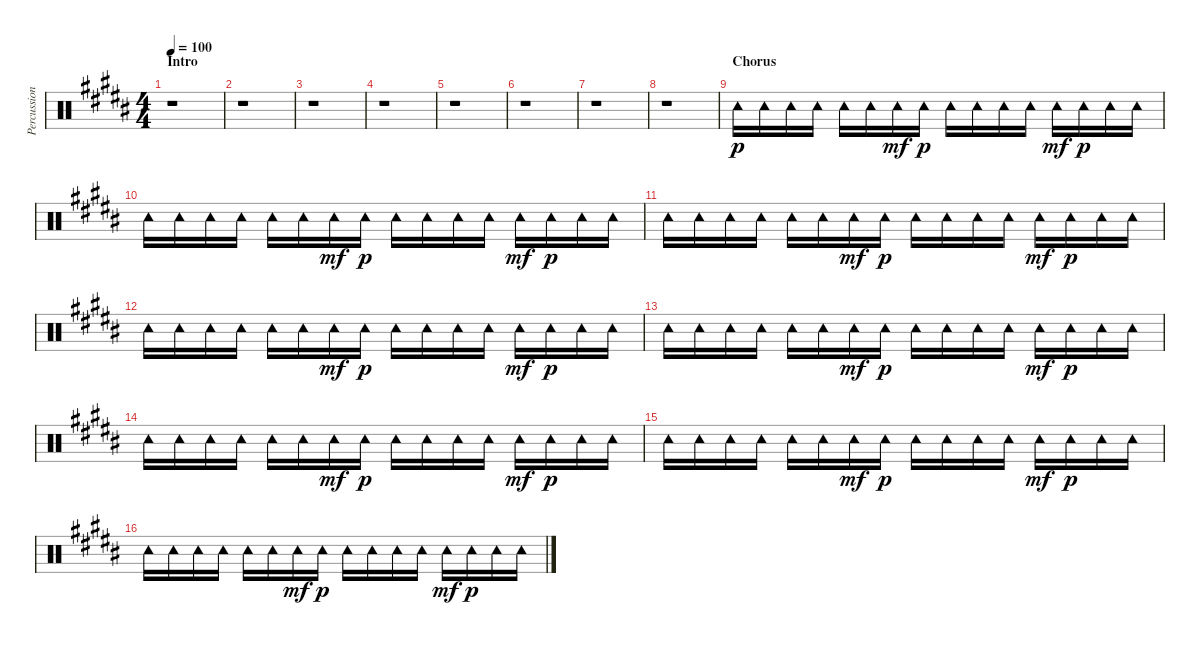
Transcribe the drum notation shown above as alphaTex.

\track ("Percussion" "Percussion") {instrument percussion}
\staff {score}
\articulation defaults
\ts (4 4)
\section ("" "Intro")
\tempo 100
\clef neutral
\ks b
r.1{dy p} |
r.1 |
r.1 |
r.1 |
r.1 |
r.1 |
r.1 |
r.1 |
\section ("" "Chorus")
"Tambourine (hit)".16 "Tambourine (hit)".16 "Tambourine (hit)".16 "Tambourine (hit)".16 "Tambourine (hit)".16 "Tambourine (hit)".16 "Tambourine (hit)".16{dy mf} "Tambourine (hit)".16{dy p} "Tambourine (hit)".16 "Tambourine (hit)".16 "Tambourine (hit)".16 "Tambourine (hit)".16 "Tambourine (hit)".16{dy mf} "Tambourine (hit)".16{dy p} "Tambourine (hit)".16 "Tambourine (hit)".16 |
"Tambourine (hit)".16 "Tambourine (hit)".16 "Tambourine (hit)".16 "Tambourine (hit)".16 "Tambourine (hit)".16 "Tambourine (hit)".16 "Tambourine (hit)".16{dy mf} "Tambourine (hit)".16{dy p} "Tambourine (hit)".16 "Tambourine (hit)".16 "Tambourine (hit)".16 "Tambourine (hit)".16 "Tambourine (hit)".16{dy mf} "Tambourine (hit)".16{dy p} "Tambourine (hit)".16 "Tambourine (hit)".16 |
"Tambourine (hit)".16 "Tambourine (hit)".16 "Tambourine (hit)".16 "Tambourine (hit)".16 "Tambourine (hit)".16 "Tambourine (hit)".16 "Tambourine (hit)".16{dy mf} "Tambourine (hit)".16{dy p} "Tambourine (hit)".16 "Tambourine (hit)".16 "Tambourine (hit)".16 "Tambourine (hit)".16 "Tambourine (hit)".16{dy mf} "Tambourine (hit)".16{dy p} "Tambourine (hit)".16 "Tambourine (hit)".16 |
"Tambourine (hit)".16 "Tambourine (hit)".16 "Tambourine (hit)".16 "Tambourine (hit)".16 "Tambourine (hit)".16 "Tambourine (hit)".16 "Tambourine (hit)".16{dy mf} "Tambourine (hit)".16{dy p} "Tambourine (hit)".16 "Tambourine (hit)".16 "Tambourine (hit)".16 "Tambourine (hit)".16 "Tambourine (hit)".16{dy mf} "Tambourine (hit)".16{dy p} "Tambourine (hit)".16 "Tambourine (hit)".16 |
"Tambourine (hit)".16 "Tambourine (hit)".16 "Tambourine (hit)".16 "Tambourine (hit)".16 "Tambourine (hit)".16 "Tambourine (hit)".16 "Tambourine (hit)".16{dy mf} "Tambourine (hit)".16{dy p} "Tambourine (hit)".16 "Tambourine (hit)".16 "Tambourine (hit)".16 "Tambourine (hit)".16 "Tambourine (hit)".16{dy mf} "Tambourine (hit)".16{dy p} "Tambourine (hit)".16 "Tambourine (hit)".16 |
"Tambourine (hit)".16 "Tambourine (hit)".16 "Tambourine (hit)".16 "Tambourine (hit)".16 "Tambourine (hit)".16 "Tambourine (hit)".16 "Tambourine (hit)".16{dy mf} "Tambourine (hit)".16{dy p} "Tambourine (hit)".16 "Tambourine (hit)".16 "Tambourine (hit)".16 "Tambourine (hit)".16 "Tambourine (hit)".16{dy mf} "Tambourine (hit)".16{dy p} "Tambourine (hit)".16 "Tambourine (hit)".16 |
"Tambourine (hit)".16 "Tambourine (hit)".16 "Tambourine (hit)".16 "Tambourine (hit)".16 "Tambourine (hit)".16 "Tambourine (hit)".16 "Tambourine (hit)".16{dy mf} "Tambourine (hit)".16{dy p} "Tambourine (hit)".16 "Tambourine (hit)".16 "Tambourine (hit)".16 "Tambourine (hit)".16 "Tambourine (hit)".16{dy mf} "Tambourine (hit)".16{dy p} "Tambourine (hit)".16 "Tambourine (hit)".16 |
"Tambourine (hit)".16 "Tambourine (hit)".16 "Tambourine (hit)".16 "Tambourine (hit)".16 "Tambourine (hit)".16 "Tambourine (hit)".16 "Tambourine (hit)".16{dy mf} "Tambourine (hit)".16{dy p} "Tambourine (hit)".16 "Tambourine (hit)".16 "Tambourine (hit)".16 "Tambourine (hit)".16 "Tambourine (hit)".16{dy mf} "Tambourine (hit)".16{dy p} "Tambourine (hit)".16 "Tambourine (hit)".16
